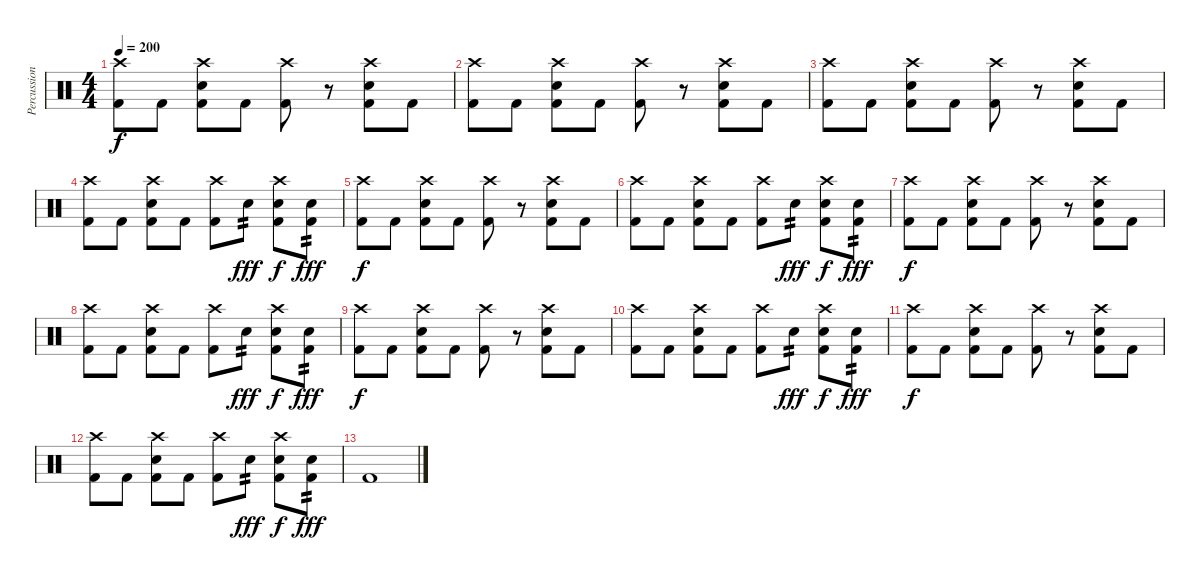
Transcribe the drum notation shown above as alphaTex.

\track ("Percussion" "Percussion") {instrument percussion}
\staff {score}
\articulation defaults
\ts (4 4)
\tempo 200
\clef neutral
\ks c
("Crash high (hit)" "Kick (hit) 2").8{dy f} "Kick (hit) 2".8 ("Crash high (hit)" "Electric Snare (hit)" "Kick (hit) 2").8 "Kick (hit) 2".8 ("Crash high (hit)" "Kick (hit) 2").8 r.8 ("Crash high (hit)" "Electric Snare (hit)" "Kick (hit) 2").8 "Kick (hit) 2".8 |
("Crash high (hit)" "Kick (hit) 2").8 "Kick (hit) 2".8 ("Crash high (hit)" "Electric Snare (hit)" "Kick (hit) 2").8 "Kick (hit) 2".8 ("Crash high (hit)" "Kick (hit) 2").8 r.8 ("Crash high (hit)" "Electric Snare (hit)" "Kick (hit) 2").8 "Kick (hit) 2".8 |
("Crash high (hit)" "Kick (hit) 2").8 "Kick (hit) 2".8 ("Crash high (hit)" "Electric Snare (hit)" "Kick (hit) 2").8 "Kick (hit) 2".8 ("Crash high (hit)" "Kick (hit) 2").8 r.8 ("Crash high (hit)" "Electric Snare (hit)" "Kick (hit) 2").8 "Kick (hit) 2".8 |
("Crash high (hit)" "Kick (hit) 2").8 "Kick (hit) 2".8 ("Crash high (hit)" "Electric Snare (hit)" "Kick (hit) 2").8 "Kick (hit) 2".8 ("Crash high (hit)" "Kick (hit) 2").8 "Electric Snare (hit)".8{tp 2 dy fff} ("Crash high (hit)" "Electric Snare (hit)" "Kick (hit) 2").8{dy f} ("Electric Snare (hit)" "Kick (hit) 2").8{tp 2 dy fff} |
("Crash high (hit)" "Kick (hit) 2").8{dy f} "Kick (hit) 2".8 ("Crash high (hit)" "Electric Snare (hit)" "Kick (hit) 2").8 "Kick (hit) 2".8 ("Crash high (hit)" "Kick (hit) 2").8 r.8 ("Crash high (hit)" "Electric Snare (hit)" "Kick (hit) 2").8 "Kick (hit) 2".8 |
("Crash high (hit)" "Kick (hit) 2").8 "Kick (hit) 2".8 ("Crash high (hit)" "Electric Snare (hit)" "Kick (hit) 2").8 "Kick (hit) 2".8 ("Crash high (hit)" "Kick (hit) 2").8 "Electric Snare (hit)".8{tp 2 dy fff} ("Crash high (hit)" "Electric Snare (hit)" "Kick (hit) 2").8{dy f} ("Electric Snare (hit)" "Kick (hit) 2").8{tp 2 dy fff} |
("Crash high (hit)" "Kick (hit) 2").8{dy f} "Kick (hit) 2".8 ("Crash high (hit)" "Electric Snare (hit)" "Kick (hit) 2").8 "Kick (hit) 2".8 ("Crash high (hit)" "Kick (hit) 2").8 r.8 ("Crash high (hit)" "Electric Snare (hit)" "Kick (hit) 2").8 "Kick (hit) 2".8 |
("Crash high (hit)" "Kick (hit) 2").8 "Kick (hit) 2".8 ("Crash high (hit)" "Electric Snare (hit)" "Kick (hit) 2").8 "Kick (hit) 2".8 ("Crash high (hit)" "Kick (hit) 2").8 "Electric Snare (hit)".8{tp 2 dy fff} ("Crash high (hit)" "Electric Snare (hit)" "Kick (hit) 2").8{dy f} ("Electric Snare (hit)" "Kick (hit) 2").8{tp 2 dy fff} |
("Crash high (hit)" "Kick (hit) 2").8{dy f} "Kick (hit) 2".8 ("Crash high (hit)" "Electric Snare (hit)" "Kick (hit) 2").8 "Kick (hit) 2".8 ("Crash high (hit)" "Kick (hit) 2").8 r.8 ("Crash high (hit)" "Electric Snare (hit)" "Kick (hit) 2").8 "Kick (hit) 2".8 |
("Crash high (hit)" "Kick (hit) 2").8 "Kick (hit) 2".8 ("Crash high (hit)" "Electric Snare (hit)" "Kick (hit) 2").8 "Kick (hit) 2".8 ("Crash high (hit)" "Kick (hit) 2").8 "Electric Snare (hit)".8{tp 2 dy fff} ("Crash high (hit)" "Electric Snare (hit)" "Kick (hit) 2").8{dy f} ("Electric Snare (hit)" "Kick (hit) 2").8{tp 2 dy fff} |
("Crash high (hit)" "Kick (hit) 2").8{dy f} "Kick (hit) 2".8 ("Crash high (hit)" "Electric Snare (hit)" "Kick (hit) 2").8 "Kick (hit) 2".8 ("Crash high (hit)" "Kick (hit) 2").8 r.8 ("Crash high (hit)" "Electric Snare (hit)" "Kick (hit) 2").8 "Kick (hit) 2".8 |
("Crash high (hit)" "Kick (hit) 2").8 "Kick (hit) 2".8 ("Crash high (hit)" "Electric Snare (hit)" "Kick (hit) 2").8 "Kick (hit) 2".8 ("Crash high (hit)" "Kick (hit) 2").8 "Electric Snare (hit)".8{tp 2 dy fff} ("Crash high (hit)" "Electric Snare (hit)" "Kick (hit) 2").8{dy f} ("Electric Snare (hit)" "Kick (hit) 2").8{tp 2 dy fff} |
"Kick (hit) 2".1
